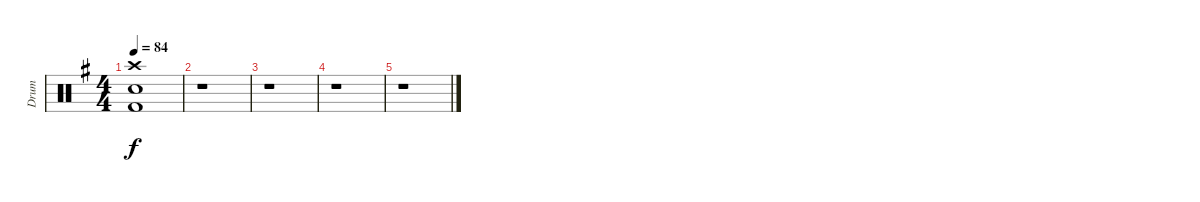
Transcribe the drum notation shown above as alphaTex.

\track ("Drum" "Drum") {instrument percussion}
\staff {score}
\articulation defaults
\ts (4 4)
\tempo 84
\clef neutral
\ks g
("Crash high (hit)" "Electric Snare (hit)" "Kick (hit) 2").1{dy f} |
r.1 |
r.1 |
r.1 |
r.1
